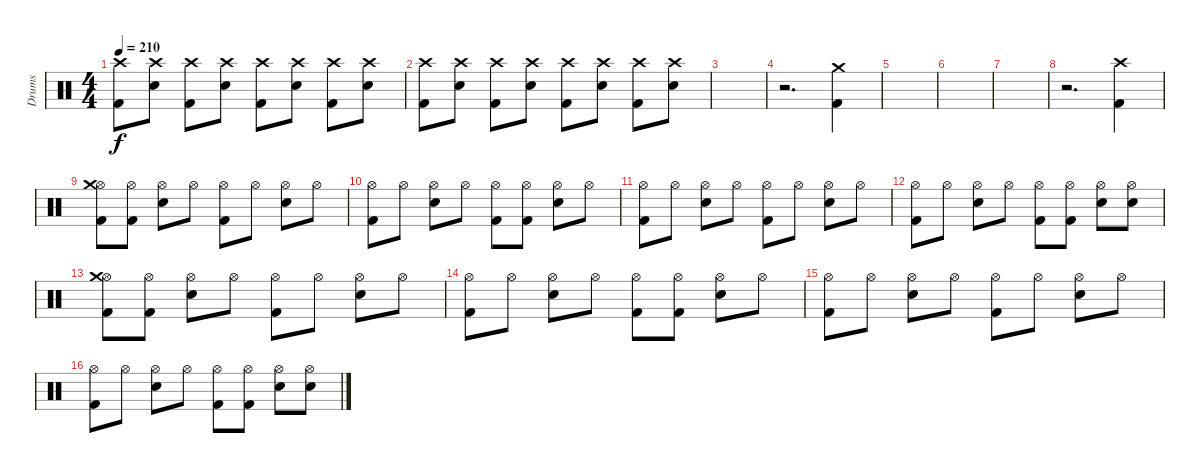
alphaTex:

\track ("Drums" "Drums") {instrument percussion}
\staff {score}
\articulation defaults
\ts (4 4)
\tempo 210
\clef neutral
\ks c
("Crash high (hit)" "Kick (hit) 2").8{dy f} ("Crash high (hit)" "Electric Snare (hit)").8 ("Crash high (hit)" "Kick (hit) 2").8 ("Crash high (hit)" "Electric Snare (hit)").8 ("Crash high (hit)" "Kick (hit) 2").8 ("Crash high (hit)" "Electric Snare (hit)").8 ("Crash high (hit)" "Kick (hit) 2").8 ("Crash high (hit)" "Electric Snare (hit)").8 |
("Crash high (hit)" "Kick (hit) 2").8 ("Crash high (hit)" "Electric Snare (hit)").8 ("Crash high (hit)" "Kick (hit) 2").8 ("Crash high (hit)" "Electric Snare (hit)").8 ("Crash high (hit)" "Kick (hit) 2").8 ("Crash high (hit)" "Electric Snare (hit)").8 ("Crash high (hit)" "Kick (hit) 2").8 ("Crash high (hit)" "Electric Snare (hit)").8 |
|
r.2{d} ("Crash medium (hit)" "Kick (hit) 2").4 |
|
|
|
r.2{d} ("Crash high (hit)" "Kick (hit) 2").4 |
("Hi-Hat (open)" "Crash medium (hit)" "Kick (hit) 2").8 ("Hi-Hat (open)" "Kick (hit) 2").8 ("Hi-Hat (open)" "Electric Snare (hit)").8 "Hi-Hat (open)".8 ("Hi-Hat (open)" "Kick (hit) 2").8 "Hi-Hat (open)".8 ("Hi-Hat (open)" "Electric Snare (hit)").8 "Hi-Hat (open)".8 |
("Hi-Hat (open)" "Kick (hit) 2").8 "Hi-Hat (open)".8 ("Hi-Hat (open)" "Electric Snare (hit)").8 "Hi-Hat (open)".8 ("Hi-Hat (open)" "Kick (hit) 2").8 ("Hi-Hat (open)" "Kick (hit) 2").8 ("Hi-Hat (open)" "Electric Snare (hit)").8 "Hi-Hat (open)".8 |
("Hi-Hat (open)" "Kick (hit) 2").8 "Hi-Hat (open)".8 ("Hi-Hat (open)" "Electric Snare (hit)").8 "Hi-Hat (open)".8 ("Hi-Hat (open)" "Kick (hit) 2").8 "Hi-Hat (open)".8 ("Hi-Hat (open)" "Electric Snare (hit)").8 "Hi-Hat (open)".8 |
("Hi-Hat (open)" "Kick (hit) 2").8 "Hi-Hat (open)".8 ("Hi-Hat (open)" "Electric Snare (hit)").8 "Hi-Hat (open)".8 ("Hi-Hat (open)" "Kick (hit) 2").8 ("Hi-Hat (open)" "Kick (hit) 2").8 ("Hi-Hat (open)" "Electric Snare (hit)").8 ("Hi-Hat (open)" "Electric Snare (hit)").8 |
("Hi-Hat (open)" "Crash medium (hit)" "Kick (hit) 2").8 ("Hi-Hat (open)" "Kick (hit) 2").8 ("Hi-Hat (open)" "Electric Snare (hit)").8 "Hi-Hat (open)".8 ("Hi-Hat (open)" "Kick (hit) 2").8 "Hi-Hat (open)".8 ("Hi-Hat (open)" "Electric Snare (hit)").8 "Hi-Hat (open)".8 |
("Hi-Hat (open)" "Kick (hit) 2").8 "Hi-Hat (open)".8 ("Hi-Hat (open)" "Electric Snare (hit)").8 "Hi-Hat (open)".8 ("Hi-Hat (open)" "Kick (hit) 2").8 ("Hi-Hat (open)" "Kick (hit) 2").8 ("Hi-Hat (open)" "Electric Snare (hit)").8 "Hi-Hat (open)".8 |
("Hi-Hat (open)" "Kick (hit) 2").8 "Hi-Hat (open)".8 ("Hi-Hat (open)" "Electric Snare (hit)").8 "Hi-Hat (open)".8 ("Hi-Hat (open)" "Kick (hit) 2").8 "Hi-Hat (open)".8 ("Hi-Hat (open)" "Electric Snare (hit)").8 "Hi-Hat (open)".8 |
("Hi-Hat (open)" "Kick (hit) 2").8 "Hi-Hat (open)".8 ("Hi-Hat (open)" "Electric Snare (hit)").8 "Hi-Hat (open)".8 ("Hi-Hat (open)" "Kick (hit) 2").8 ("Hi-Hat (open)" "Kick (hit) 2").8 ("Hi-Hat (open)" "Electric Snare (hit)").8 ("Hi-Hat (open)" "Electric Snare (hit)").8
